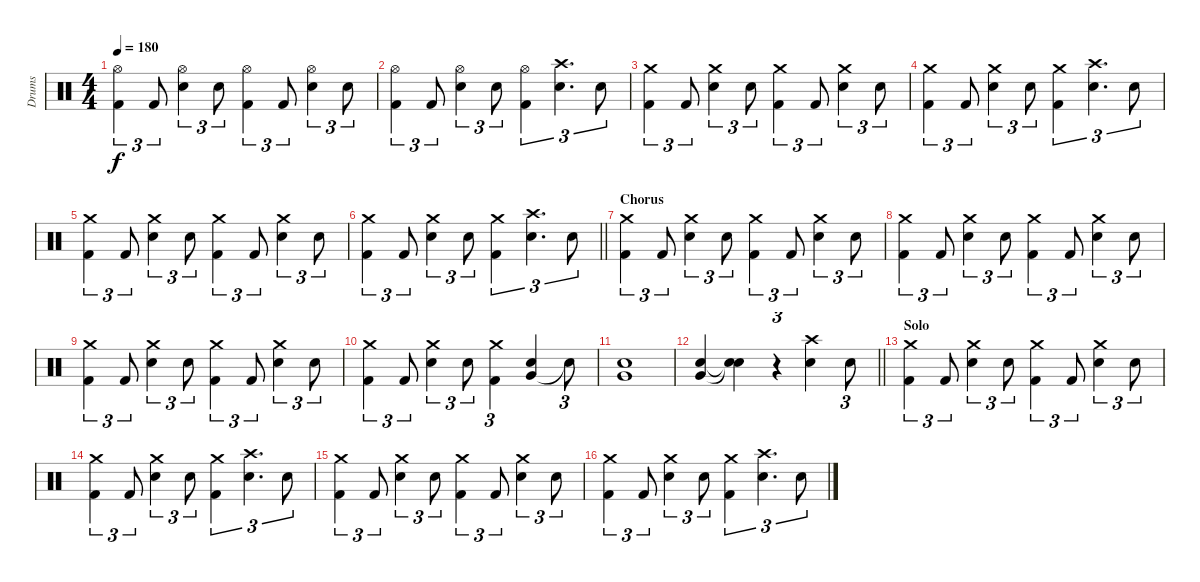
\track ("Drums" "Drums") {instrument percussion}
\staff {score}
\articulation defaults
\ts (4 4)
\tempo 180
\clef neutral
\ks c
("Hi-Hat (open)" "Kick (hit) 2").4{tu (3 2) dy f} "Kick (hit) 2".8{tu (3 2)} ("Hi-Hat (open)" "Electric Snare (hit)").4{tu (3 2)} "Electric Snare (hit)".8{tu (3 2)} ("Hi-Hat (open)" "Kick (hit) 2").4{tu (3 2)} "Kick (hit) 2".8{tu (3 2)} ("Hi-Hat (open)" "Electric Snare (hit)").4{tu (3 2)} "Electric Snare (hit)".8{tu (3 2)} |
("Hi-Hat (open)" "Kick (hit) 2").4{tu (3 2)} "Kick (hit) 2".8{tu (3 2)} ("Hi-Hat (open)" "Electric Snare (hit)").4{tu (3 2)} "Electric Snare (hit)".8{tu (3 2)} ("Hi-Hat (open)" "Kick (hit) 2").4{tu (3 2)} ("Crash high (hit)" "Electric Snare (hit)").4{d tu (3 2)} "Electric Snare (hit)".8{tu (3 2)} |
("Crash medium (hit)" "Kick (hit) 2").4{tu (3 2)} "Kick (hit) 2".8{tu (3 2)} ("Crash medium (hit)" "Electric Snare (hit)").4{tu (3 2)} "Electric Snare (hit)".8{tu (3 2)} ("Crash medium (hit)" "Kick (hit) 2").4{tu (3 2)} "Kick (hit) 2".8{tu (3 2)} ("Crash medium (hit)" "Electric Snare (hit)").4{tu (3 2)} "Electric Snare (hit)".8{tu (3 2)} |
("Crash medium (hit)" "Kick (hit) 2").4{tu (3 2)} "Kick (hit) 2".8{tu (3 2)} ("Crash medium (hit)" "Electric Snare (hit)").4{tu (3 2)} "Electric Snare (hit)".8{tu (3 2)} ("Crash medium (hit)" "Kick (hit) 2").4{tu (3 2)} ("Crash high (hit)" "Electric Snare (hit)").4{d tu (3 2)} "Electric Snare (hit)".8{tu (3 2)} |
("Crash medium (hit)" "Kick (hit) 2").4{tu (3 2)} "Kick (hit) 2".8{tu (3 2)} ("Crash medium (hit)" "Electric Snare (hit)").4{tu (3 2)} "Electric Snare (hit)".8{tu (3 2)} ("Crash medium (hit)" "Kick (hit) 2").4{tu (3 2)} "Kick (hit) 2".8{tu (3 2)} ("Crash medium (hit)" "Electric Snare (hit)").4{tu (3 2)} "Electric Snare (hit)".8{tu (3 2)} |
\barLineRight lightlight
("Crash medium (hit)" "Kick (hit) 2").4{tu (3 2)} "Kick (hit) 2".8{tu (3 2)} ("Crash medium (hit)" "Electric Snare (hit)").4{tu (3 2)} "Electric Snare (hit)".8{tu (3 2)} ("Crash medium (hit)" "Kick (hit) 2").4{tu (3 2)} ("Crash high (hit)" "Electric Snare (hit)").4{d tu (3 2)} "Electric Snare (hit)".8{tu (3 2)} |
\section ("" "Chorus")
("Crash medium (hit)" "Kick (hit) 2").4{tu (3 2)} "Kick (hit) 2".8{tu (3 2)} ("Crash medium (hit)" "Electric Snare (hit)").4{tu (3 2)} "Electric Snare (hit)".8{tu (3 2)} ("Crash medium (hit)" "Kick (hit) 2").4{tu (3 2)} "Kick (hit) 2".8{tu (3 2)} ("Crash medium (hit)" "Electric Snare (hit)").4{tu (3 2)} "Electric Snare (hit)".8{tu (3 2)} |
("Crash medium (hit)" "Kick (hit) 2").4{tu (3 2)} "Kick (hit) 2".8{tu (3 2)} ("Crash medium (hit)" "Electric Snare (hit)").4{tu (3 2)} "Electric Snare (hit)".8{tu (3 2)} ("Crash medium (hit)" "Kick (hit) 2").4{tu (3 2)} "Kick (hit) 2".8{tu (3 2)} ("Crash medium (hit)" "Electric Snare (hit)").4{tu (3 2)} "Electric Snare (hit)".8{tu (3 2)} |
("Crash medium (hit)" "Kick (hit) 2").4{tu (3 2)} "Kick (hit) 2".8{tu (3 2)} ("Crash medium (hit)" "Electric Snare (hit)").4{tu (3 2)} "Electric Snare (hit)".8{tu (3 2)} ("Crash medium (hit)" "Kick (hit) 2").4{tu (3 2)} "Kick (hit) 2".8{tu (3 2)} ("Crash medium (hit)" "Electric Snare (hit)").4{tu (3 2)} "Electric Snare (hit)".8{tu (3 2)} |
("Crash medium (hit)" "Kick (hit) 2").4{tu (3 2)} "Kick (hit) 2".8{tu (3 2)} ("Crash medium (hit)" "Electric Snare (hit)").4{tu (3 2)} "Electric Snare (hit)".8{tu (3 2)} ("Crash medium (hit)" "Kick (hit) 2").4{tu (3 2)} ("Very Low Tom (hit)" "Electric Snare (hit)").4 "Snare (hit)"{t}.8{tu (3 2)} |
("Very Low Tom (hit)" "Electric Snare (hit)").1 |
\barLineRight lightlight
("Very Low Tom (hit)" "Electric Snare (hit)").4 ("Snare (hit)"{t} "Snare (hit)"{t}).4 r.4{tu (3 2)} ("Crash high (hit)" "Electric Snare (hit)").4 "Electric Snare (hit)".8{tu (3 2)} |
\section ("" "Solo")
("Crash medium (hit)" "Kick (hit) 2").4{tu (3 2)} "Kick (hit) 2".8{tu (3 2)} ("Crash medium (hit)" "Electric Snare (hit)").4{tu (3 2)} "Electric Snare (hit)".8{tu (3 2)} ("Crash medium (hit)" "Kick (hit) 2").4{tu (3 2)} "Kick (hit) 2".8{tu (3 2)} ("Crash medium (hit)" "Electric Snare (hit)").4{tu (3 2)} "Electric Snare (hit)".8{tu (3 2)} |
("Crash medium (hit)" "Kick (hit) 2").4{tu (3 2)} "Kick (hit) 2".8{tu (3 2)} ("Crash medium (hit)" "Electric Snare (hit)").4{tu (3 2)} "Electric Snare (hit)".8{tu (3 2)} ("Crash medium (hit)" "Kick (hit) 2").4{tu (3 2)} ("Crash high (hit)" "Electric Snare (hit)").4{d tu (3 2)} "Electric Snare (hit)".8{tu (3 2)} |
("Crash medium (hit)" "Kick (hit) 2").4{tu (3 2)} "Kick (hit) 2".8{tu (3 2)} ("Crash medium (hit)" "Electric Snare (hit)").4{tu (3 2)} "Electric Snare (hit)".8{tu (3 2)} ("Crash medium (hit)" "Kick (hit) 2").4{tu (3 2)} "Kick (hit) 2".8{tu (3 2)} ("Crash medium (hit)" "Electric Snare (hit)").4{tu (3 2)} "Electric Snare (hit)".8{tu (3 2)} |
("Crash medium (hit)" "Kick (hit) 2").4{tu (3 2)} "Kick (hit) 2".8{tu (3 2)} ("Crash medium (hit)" "Electric Snare (hit)").4{tu (3 2)} "Electric Snare (hit)".8{tu (3 2)} ("Crash medium (hit)" "Kick (hit) 2").4{tu (3 2)} ("Crash high (hit)" "Electric Snare (hit)").4{d tu (3 2)} "Electric Snare (hit)".8{tu (3 2)}
